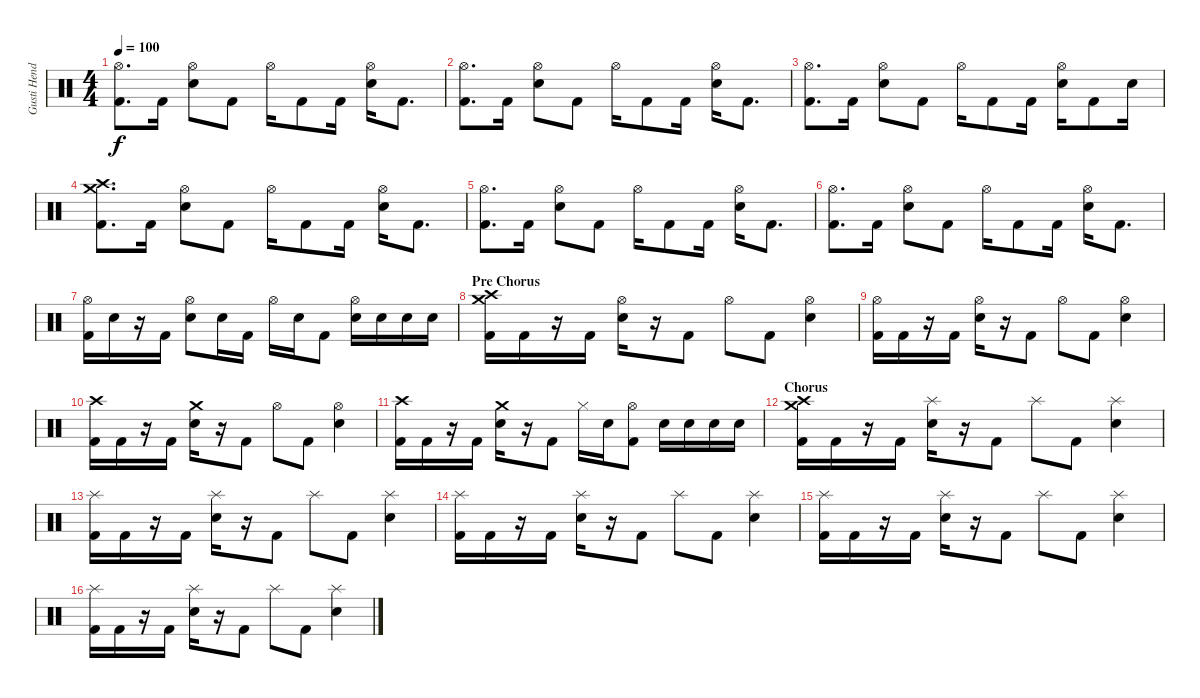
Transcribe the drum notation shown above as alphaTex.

\track ("Gusti Hendy" "Gusti Hend") {instrument percussion}
\staff {score}
\articulation defaults
\ts (4 4)
\tempo 100
\clef neutral
\ks c
("Hi-Hat (open)" "Kick (hit) 2").8{d dy f} "Kick (hit) 2".16 ("Hi-Hat (open)" "Electric Snare (hit)").8 "Kick (hit) 2".8 "Hi-Hat (open)".16 "Kick (hit) 2".8 "Kick (hit) 2".16 ("Hi-Hat (open)" "Electric Snare (hit)").16 "Kick (hit) 2".8{d} |
("Hi-Hat (open)" "Kick (hit) 2").8{d} "Kick (hit) 2".16 ("Hi-Hat (open)" "Electric Snare (hit)").8 "Kick (hit) 2".8 "Hi-Hat (open)".16 "Kick (hit) 2".8 "Kick (hit) 2".16 ("Hi-Hat (open)" "Electric Snare (hit)").16 "Kick (hit) 2".8{d} |
("Hi-Hat (open)" "Kick (hit) 2").8{d} "Kick (hit) 2".16 ("Hi-Hat (open)" "Electric Snare (hit)").8 "Kick (hit) 2".8 "Hi-Hat (open)".16 "Kick (hit) 2".8 "Kick (hit) 2".16 ("Hi-Hat (open)" "Electric Snare (hit)").16 "Kick (hit) 2".8 "Electric Snare (hit)".16 |
("Crash high (hit)" "Crash medium (hit)" "Kick (hit) 2").8{d} "Kick (hit) 2".16 ("Hi-Hat (open)" "Electric Snare (hit)").8 "Kick (hit) 2".8 "Hi-Hat (open)".16 "Kick (hit) 2".8 "Kick (hit) 2".16 ("Hi-Hat (open)" "Electric Snare (hit)").16 "Kick (hit) 2".8{d} |
("Hi-Hat (open)" "Kick (hit) 2").8{d} "Kick (hit) 2".16 ("Hi-Hat (open)" "Electric Snare (hit)").8 "Kick (hit) 2".8 "Hi-Hat (open)".16 "Kick (hit) 2".8 "Kick (hit) 2".16 ("Hi-Hat (open)" "Electric Snare (hit)").16 "Kick (hit) 2".8{d} |
("Hi-Hat (open)" "Kick (hit) 2").8{d} "Kick (hit) 2".16 ("Hi-Hat (open)" "Electric Snare (hit)").8 "Kick (hit) 2".8 "Hi-Hat (open)".16 "Kick (hit) 2".8 "Kick (hit) 2".16 ("Hi-Hat (open)" "Electric Snare (hit)").16 "Kick (hit) 2".8{d} |
("Hi-Hat (open)" "Kick (hit) 2").16 "Electric Snare (hit)".16 r.16 "Kick (hit) 2".16 ("Hi-Hat (open)" "Electric Snare (hit)").8 "Electric Snare (hit)".16 "Kick (hit) 2".16 "Hi-Hat (open)".16 "Electric Snare (hit)".16 "Kick (hit) 2".8 ("Hi-Hat (open)" "Electric Snare (hit)").16 "Electric Snare (hit)".16 "Electric Snare (hit)".16 "Electric Snare (hit)".16 |
\section ("" "Pre Chorus")
("Crash high (hit)" "Crash medium (hit)" "Kick (hit) 2").16 "Kick (hit) 2".16 r.16 "Kick (hit) 2".16 ("Hi-Hat (open)" "Electric Snare (hit)").16 r.16 "Kick (hit) 2".8 "Hi-Hat (open)".8 "Kick (hit) 2".8 ("Hi-Hat (open)" "Electric Snare (hit)").4 |
("Hi-Hat (open)" "Kick (hit) 2").16 "Kick (hit) 2".16 r.16 "Kick (hit) 2".16 ("Hi-Hat (open)" "Electric Snare (hit)").16 r.16 "Kick (hit) 2".8 "Hi-Hat (open)".8 "Kick (hit) 2".8 ("Hi-Hat (open)" "Electric Snare (hit)").4 |
("Crash high (hit)" "Kick (hit) 2").16 "Kick (hit) 2".16 r.16 "Kick (hit) 2".16 ("Crash medium (hit)" "Electric Snare (hit)").16 r.16 "Kick (hit) 2".8 "Hi-Hat (open)".8 "Kick (hit) 2".8 ("Hi-Hat (open)" "Electric Snare (hit)").4 |
("Crash high (hit)" "Kick (hit) 2").16 "Kick (hit) 2".16 r.16 "Kick (hit) 2".16 ("Crash medium (hit)" "Electric Snare (hit)").16 r.16 "Kick (hit) 2".8 "Hi-Hat (closed)".16 "Electric Snare (hit)".16 ("Hi-Hat (open)" "Kick (hit) 2").8 "Electric Snare (hit)".16 "Electric Snare (hit)".16 "Electric Snare (hit)".16 "Electric Snare (hit)".16 |
\section ("" "Chorus")
("Crash high (hit)" "Crash medium (hit)" "Kick (hit) 2").16 "Kick (hit) 2".16 r.16 "Kick (hit) 2".16 ("Splash (hit)" "Electric Snare (hit)").16 r.16 "Kick (hit) 2".8 "Splash (hit)".8 "Kick (hit) 2".8 ("Splash (hit)" "Electric Snare (hit)").4 |
("Splash (hit)" "Kick (hit) 2").16 "Kick (hit) 2".16 r.16 "Kick (hit) 2".16 ("Splash (hit)" "Electric Snare (hit)").16 r.16 "Kick (hit) 2".8 "Splash (hit)".8 "Kick (hit) 2".8 ("Splash (hit)" "Electric Snare (hit)").4 |
("Splash (hit)" "Kick (hit) 2").16 "Kick (hit) 2".16 r.16 "Kick (hit) 2".16 ("Splash (hit)" "Electric Snare (hit)").16 r.16 "Kick (hit) 2".8 "Splash (hit)".8 "Kick (hit) 2".8 ("Splash (hit)" "Electric Snare (hit)").4 |
("Splash (hit)" "Kick (hit) 2").16 "Kick (hit) 2".16 r.16 "Kick (hit) 2".16 ("Splash (hit)" "Electric Snare (hit)").16 r.16 "Kick (hit) 2".8 "Splash (hit)".8 "Kick (hit) 2".8 ("Splash (hit)" "Electric Snare (hit)").4 |
("Splash (hit)" "Kick (hit) 2").16 "Kick (hit) 2".16 r.16 "Kick (hit) 2".16 ("Splash (hit)" "Electric Snare (hit)").16 r.16 "Kick (hit) 2".8 "Splash (hit)".8 "Kick (hit) 2".8 ("Splash (hit)" "Electric Snare (hit)").4
